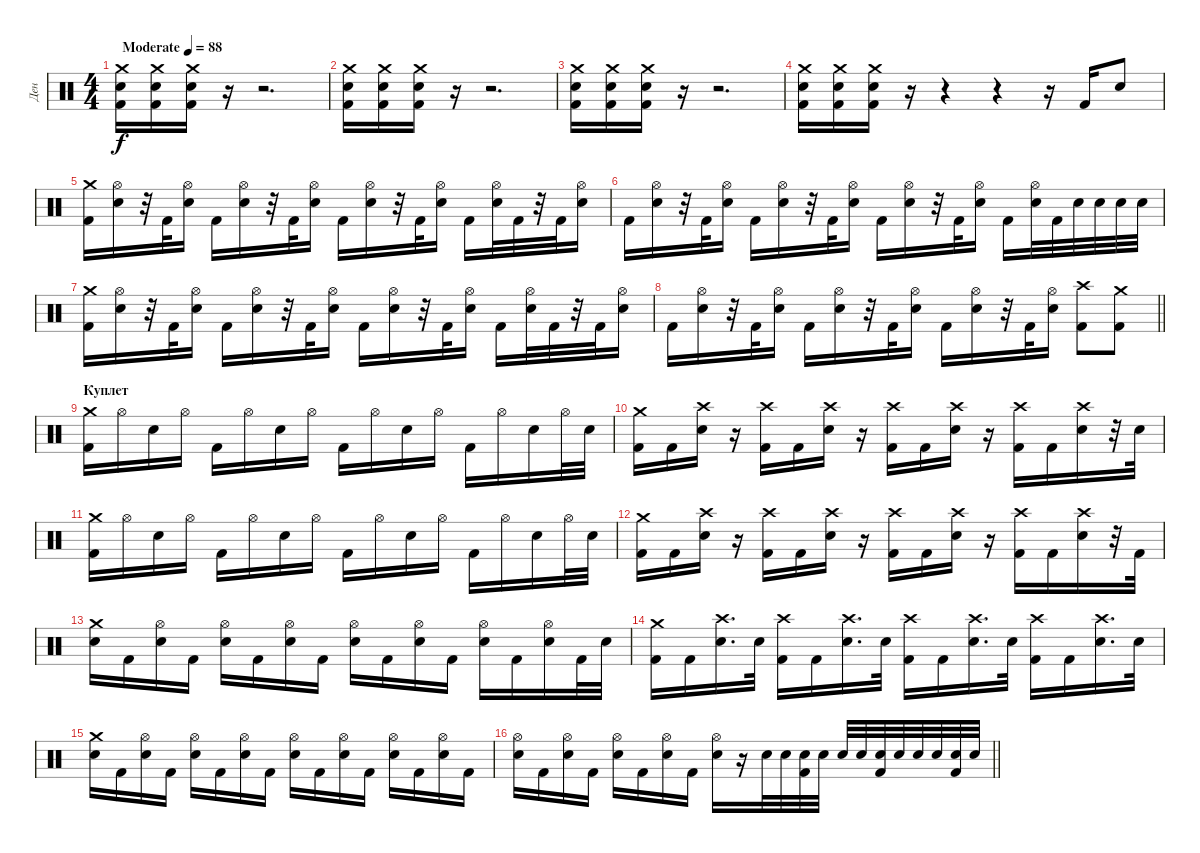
\track ("Ден" "Ден") {instrument percussion}
\staff {score}
\articulation defaults
\ts (4 4)
\tempo (88 "Moderate")
\clef neutral
\ks c
("Kick (hit) 2" "Electric Snare (hit)" "Crash medium (hit)").16{dy f} ("Kick (hit) 2" "Electric Snare (hit)" "Crash medium (hit)").16 ("Kick (hit) 2" "Electric Snare (hit)" "Crash medium (hit)").16 r.16 r.2{d} |
("Kick (hit) 2" "Electric Snare (hit)" "Crash medium (hit)").16 ("Kick (hit) 2" "Electric Snare (hit)" "Crash medium (hit)").16 ("Kick (hit) 2" "Electric Snare (hit)" "Crash medium (hit)").16 r.16 r.2{d} |
("Kick (hit) 2" "Electric Snare (hit)" "Crash medium (hit)").16 ("Kick (hit) 2" "Electric Snare (hit)" "Crash medium (hit)").16 ("Kick (hit) 2" "Electric Snare (hit)" "Crash medium (hit)").16 r.16 r.2{d} |
("Kick (hit) 2" "Electric Snare (hit)" "Crash medium (hit)").16 ("Kick (hit) 2" "Electric Snare (hit)" "Crash medium (hit)").16 ("Kick (hit) 2" "Electric Snare (hit)" "Crash medium (hit)").16 r.16 r.4 r.4 r.16 "Kick (hit) 2".16 "Electric Snare (hit)".8 |
("Kick (hit) 2" "Crash medium (hit)").16 ("Electric Snare (hit)" "Hi-Hat (open)").16 r.32 "Kick (hit) 2".32 ("Electric Snare (hit)" "Hi-Hat (open)").16 "Kick (hit) 2".16 ("Electric Snare (hit)" "Hi-Hat (open)").16 r.32 "Kick (hit) 2".32 ("Electric Snare (hit)" "Hi-Hat (open)").16 "Kick (hit) 2".16 ("Electric Snare (hit)" "Hi-Hat (open)").16 r.32 "Kick (hit) 2".32 ("Electric Snare (hit)" "Hi-Hat (open)").16 "Kick (hit) 2".16 ("Electric Snare (hit)" "Hi-Hat (open)").32 "Kick (hit) 2".32 r.32 "Kick (hit) 2".32 ("Electric Snare (hit)" "Hi-Hat (open)").16 |
"Kick (hit) 2".16 ("Electric Snare (hit)" "Hi-Hat (open)").16 r.32 "Kick (hit) 2".32 ("Electric Snare (hit)" "Hi-Hat (open)").16 "Kick (hit) 2".16 ("Electric Snare (hit)" "Hi-Hat (open)").16 r.32 "Kick (hit) 2".32 ("Electric Snare (hit)" "Hi-Hat (open)").16 "Kick (hit) 2".16 ("Electric Snare (hit)" "Hi-Hat (open)").16 r.32 "Kick (hit) 2".32 ("Electric Snare (hit)" "Hi-Hat (open)").16 "Kick (hit) 2".16 ("Electric Snare (hit)" "Hi-Hat (open)").32 "Kick (hit) 2".32 "Electric Snare (hit)".32 "Electric Snare (hit)".32 "Electric Snare (hit)".32 "Electric Snare (hit)".32 |
("Kick (hit) 2" "Crash medium (hit)").16 ("Electric Snare (hit)" "Hi-Hat (open)").16 r.32 "Kick (hit) 2".32 ("Electric Snare (hit)" "Hi-Hat (open)").16 "Kick (hit) 2".16 ("Electric Snare (hit)" "Hi-Hat (open)").16 r.32 "Kick (hit) 2".32 ("Electric Snare (hit)" "Hi-Hat (open)").16 "Kick (hit) 2".16 ("Electric Snare (hit)" "Hi-Hat (open)").16 r.32 "Kick (hit) 2".32 ("Electric Snare (hit)" "Hi-Hat (open)").16 "Kick (hit) 2".16 ("Electric Snare (hit)" "Hi-Hat (open)").32 "Kick (hit) 2".32 r.32 "Kick (hit) 2".32 ("Electric Snare (hit)" "Hi-Hat (open)").16 |
\barLineRight lightlight "Kick (hit) 2".16
("Electric Snare (hit)" "Hi-Hat (open)").16 r.32 "Kick (hit) 2".32 ("Electric Snare (hit)" "Hi-Hat (open)").16 "Kick (hit) 2".16 ("Electric Snare (hit)" "Hi-Hat (open)").16 r.32 "Kick (hit) 2".32 ("Electric Snare (hit)" "Hi-Hat (open)").16 "Kick (hit) 2".16 ("Electric Snare (hit)" "Hi-Hat (open)").16 r.32 "Kick (hit) 2".32 ("Electric Snare (hit)" "Hi-Hat (open)").16 ("Kick (hit) 2" "Crash high (hit)").8 ("Kick (hit) 2" "Crash medium (hit)").8 |
\section ("" "Куплет")
("Crash medium (hit)" "Kick (hit) 2").16 "Hi-Hat (open)".16 "Electric Snare (hit)".16 "Hi-Hat (open)".16 "Kick (hit) 2".16 "Hi-Hat (open)".16 "Electric Snare (hit)".16 "Hi-Hat (open)".16 "Kick (hit) 2".16 "Hi-Hat (open)".16 "Electric Snare (hit)".16 "Hi-Hat (open)".16 "Kick (hit) 2".16 "Hi-Hat (open)".16 "Electric Snare (hit)".16 "Hi-Hat (open)".32 "Electric Snare (hit)".32 |
("Crash medium (hit)" "Kick (hit) 2").16 "Kick (hit) 2".16 ("Crash high (hit)" "Electric Snare (hit)").16 r.16 ("Crash high (hit)" "Kick (hit) 2").16 "Kick (hit) 2".16 ("Crash high (hit)" "Electric Snare (hit)").16 r.16 ("Crash high (hit)" "Kick (hit) 2").16 "Kick (hit) 2".16 ("Crash high (hit)" "Electric Snare (hit)").16 r.16 ("Crash high (hit)" "Kick (hit) 2").16 "Kick (hit) 2".16 ("Crash high (hit)" "Electric Snare (hit)").16 r.32 "Electric Snare (hit)".32 |
("Crash medium (hit)" "Kick (hit) 2").16 "Hi-Hat (open)".16 "Electric Snare (hit)".16 "Hi-Hat (open)".16 "Kick (hit) 2".16 "Hi-Hat (open)".16 "Electric Snare (hit)".16 "Hi-Hat (open)".16 "Kick (hit) 2".16 "Hi-Hat (open)".16 "Electric Snare (hit)".16 "Hi-Hat (open)".16 "Kick (hit) 2".16 "Hi-Hat (open)".16 "Electric Snare (hit)".16 "Hi-Hat (open)".32 "Electric Snare (hit)".32 |
("Crash medium (hit)" "Kick (hit) 2").16 "Kick (hit) 2".16 ("Crash high (hit)" "Electric Snare (hit)").16 r.16 ("Crash high (hit)" "Kick (hit) 2").16 "Kick (hit) 2".16 ("Crash high (hit)" "Electric Snare (hit)").16 r.16 ("Crash high (hit)" "Kick (hit) 2").16 "Kick (hit) 2".16 ("Crash high (hit)" "Electric Snare (hit)").16 r.16 ("Crash high (hit)" "Kick (hit) 2").16 "Kick (hit) 2".16 ("Crash high (hit)" "Electric Snare (hit)").16 r.32 "Kick (hit) 2".32 |
("Crash medium (hit)" "Electric Snare (hit)").16 "Kick (hit) 2".16 ("Hi-Hat (open)" "Electric Snare (hit)").16 "Kick (hit) 2".16 ("Hi-Hat (open)" "Electric Snare (hit)").16 "Kick (hit) 2".16 ("Hi-Hat (open)" "Electric Snare (hit)").16 "Kick (hit) 2".16 ("Hi-Hat (open)" "Electric Snare (hit)").16 "Kick (hit) 2".16 ("Hi-Hat (open)" "Electric Snare (hit)").16 "Kick (hit) 2".16 ("Hi-Hat (open)" "Electric Snare (hit)").16 "Kick (hit) 2".16 ("Hi-Hat (open)" "Electric Snare (hit)").16 "Kick (hit) 2".32 "Electric Snare (hit)".32 |
("Crash medium (hit)" "Kick (hit) 2").16 "Kick (hit) 2".16 ("Crash high (hit)" "Electric Snare (hit)").16{d} "Electric Snare (hit)".32 ("Crash high (hit)" "Kick (hit) 2").16 "Kick (hit) 2".16 ("Crash high (hit)" "Electric Snare (hit)").16{d} "Electric Snare (hit)".32 ("Crash high (hit)" "Kick (hit) 2").16 "Kick (hit) 2".16 ("Crash high (hit)" "Electric Snare (hit)").16{d} "Electric Snare (hit)".32 ("Crash high (hit)" "Kick (hit) 2").16 "Kick (hit) 2".16 ("Crash high (hit)" "Electric Snare (hit)").16{d} "Electric Snare (hit)".32 |
("Crash medium (hit)" "Electric Snare (hit)").16 "Kick (hit) 2".16 ("Hi-Hat (open)" "Electric Snare (hit)").16 "Kick (hit) 2".16 ("Hi-Hat (open)" "Electric Snare (hit)").16 "Kick (hit) 2".16 ("Hi-Hat (open)" "Electric Snare (hit)").16 "Kick (hit) 2".16 ("Hi-Hat (open)" "Electric Snare (hit)").16 "Kick (hit) 2".16 ("Hi-Hat (open)" "Electric Snare (hit)").16 "Kick (hit) 2".16 ("Hi-Hat (open)" "Electric Snare (hit)").16 "Kick (hit) 2".16 ("Hi-Hat (open)" "Electric Snare (hit)").16 "Kick (hit) 2".16 |
\barLineRight lightlight
("Hi-Hat (open)" "Electric Snare (hit)").16 "Kick (hit) 2".16 ("Hi-Hat (open)" "Electric Snare (hit)").16 "Kick (hit) 2".16 ("Hi-Hat (open)" "Electric Snare (hit)").16 "Kick (hit) 2".16 ("Hi-Hat (open)" "Electric Snare (hit)").16 "Kick (hit) 2".16 ("Hi-Hat (open)" "Electric Snare (hit)").16 r.16 "Electric Snare (hit)".32 "Electric Snare (hit)".32 ("Kick (hit) 2" "Electric Snare (hit)").32 "Electric Snare (hit)".32 "Electric Snare (hit)".32 "Electric Snare (hit)".32 ("Kick (hit) 2" "Electric Snare (hit)").32 "Electric Snare (hit)".32 "Electric Snare (hit)".32 "Electric Snare (hit)".32 ("Kick (hit) 2" "Electric Snare (hit)").32 "Electric Snare (hit)".32
